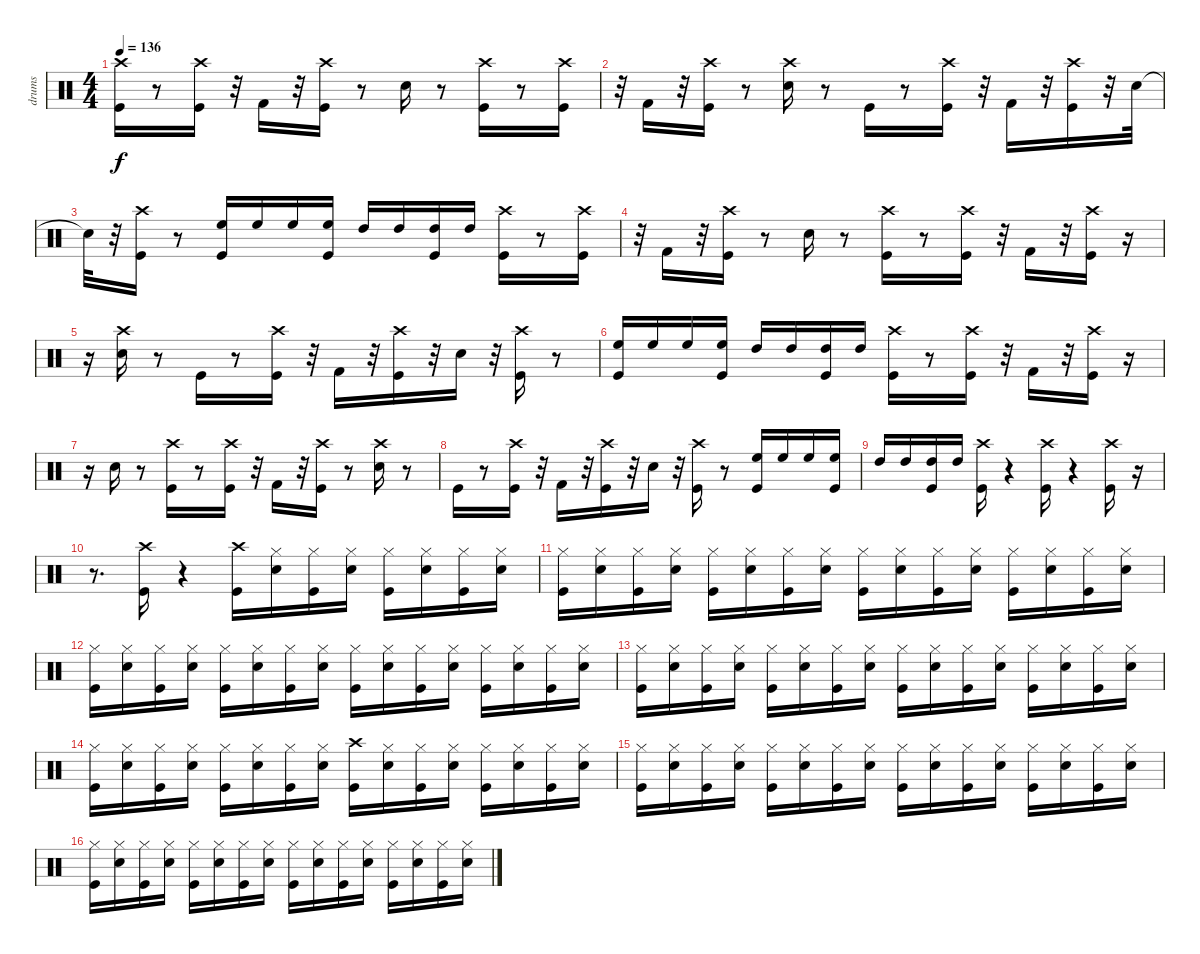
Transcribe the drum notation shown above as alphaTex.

\track ("drums" "drums") {instrument percussion}
\staff {score}
\articulation defaults
\ts (4 4)
\tempo 136
\clef neutral
\ks c
("Crash high (hit)" "Kick (hit)").16{dy f} r.8 ("Kick (hit)" "Crash high (hit)").16 r.32 "Kick (hit) 2".16 r.32 ("Kick (hit)" "Crash high (hit)").16 r.8 "Snare (hit) 2".16 r.8 ("Kick (hit)" "Crash high (hit)").16 r.8 ("Kick (hit)" "Crash high (hit)").16 |
r.32 "Kick (hit) 2".16 r.32 ("Kick (hit)" "Crash high (hit)").16 r.8 ("Crash high (hit)" "Snare (hit) 2").16 r.8 "Kick (hit)".16 r.8 ("Crash high (hit)" "Kick (hit)").16 r.32 "Kick (hit) 2".16 r.32 ("Kick (hit)" "Crash high (hit)").16 r.32 "Snare (hit) 2".32 |
"Snare (hit)"{t}.32 r.32 ("Crash high (hit)" "Kick (hit)").16 r.8 ("Kick (hit)" "High Floor Tom (hit)").16 "High Floor Tom (hit)".16 "High Floor Tom (hit)".16 ("Kick (hit)" "High Floor Tom (hit)").16 "High Tom (hit)".16 "High Tom (hit)".16 ("Kick (hit)" "High Tom (hit)").16 "High Tom (hit)".16 ("Crash high (hit)" "Kick (hit)").16 r.8 ("Kick (hit)" "Crash high (hit)").16 |
r.32 "Kick (hit) 2".16 r.32 ("Kick (hit)" "Crash high (hit)").16 r.8 "Snare (hit) 2".16 r.8 ("Kick (hit)" "Crash high (hit)").16 r.8 ("Kick (hit)" "Crash high (hit)").16 r.32 "Kick (hit) 2".16 r.32 ("Kick (hit)" "Crash high (hit)").16 r.16 |
r.16 ("Crash high (hit)" "Snare (hit) 2").16 r.8 "Kick (hit)".16 r.8 ("Crash high (hit)" "Kick (hit)").16 r.32 "Kick (hit) 2".16 r.32 ("Kick (hit)" "Crash high (hit)").16 r.32 "Snare (hit) 2".16 r.32 ("Crash high (hit)" "Kick (hit)").16 r.8 |
("Kick (hit)" "High Floor Tom (hit)").16 "High Floor Tom (hit)".16 "High Floor Tom (hit)".16 ("Kick (hit)" "High Floor Tom (hit)").16 "High Tom (hit)".16 "High Tom (hit)".16 ("Kick (hit)" "High Tom (hit)").16 "High Tom (hit)".16 ("Crash high (hit)" "Kick (hit)").16 r.8 ("Kick (hit)" "Crash high (hit)").16 r.32 "Kick (hit) 2".16 r.32 ("Kick (hit)" "Crash high (hit)").16 r.16 |
r.16 "Snare (hit) 2".16 r.8 ("Kick (hit)" "Crash high (hit)").16 r.8 ("Kick (hit)" "Crash high (hit)").16 r.32 "Kick (hit) 2".16 r.32 ("Kick (hit)" "Crash high (hit)").16 r.8 ("Crash high (hit)" "Snare (hit) 2").16 r.8 |
"Kick (hit)".16 r.8 ("Crash high (hit)" "Kick (hit)").16 r.32 "Kick (hit) 2".16 r.32 ("Kick (hit)" "Crash high (hit)").16 r.32 "Snare (hit) 2".16 r.32 ("Crash high (hit)" "Kick (hit)").16 r.8 ("Kick (hit)" "High Floor Tom (hit)").16 "High Floor Tom (hit)".16 "High Floor Tom (hit)".16 ("Kick (hit)" "High Floor Tom (hit)").16 |
"High Tom (hit)".16 "High Tom (hit)".16 ("Kick (hit)" "High Tom (hit)").16 "High Tom (hit)".16 ("Crash high (hit)" "Kick (hit)").16 r.4 ("Crash high (hit)" "Kick (hit)").16 r.4 ("Kick (hit)" "Crash high (hit)").16 r.16 |
r.8{d} ("Crash high (hit)" "Kick (hit)").16 r.4 ("Crash high (hit)" "Kick (hit)").16 ("Hi-Hat (closed)" "Snare (hit) 2").16 ("Hi-Hat (closed)" "Kick (hit)").16 ("Hi-Hat (closed)" "Snare (hit) 2").16 ("Hi-Hat (closed)" "Kick (hit)").16 ("Hi-Hat (closed)" "Snare (hit) 2").16 ("Hi-Hat (closed)" "Kick (hit)").16 ("Hi-Hat (closed)" "Snare (hit) 2").16 |
("Hi-Hat (closed)" "Kick (hit)").16 ("Hi-Hat (closed)" "Snare (hit) 2").16 ("Hi-Hat (closed)" "Kick (hit)").16 ("Hi-Hat (closed)" "Snare (hit) 2").16 ("Hi-Hat (closed)" "Kick (hit)").16 ("Hi-Hat (closed)" "Snare (hit) 2").16 ("Hi-Hat (closed)" "Kick (hit)").16 ("Hi-Hat (closed)" "Snare (hit) 2").16 ("Hi-Hat (closed)" "Kick (hit)").16 ("Hi-Hat (closed)" "Snare (hit) 2").16 ("Hi-Hat (closed)" "Kick (hit)").16 ("Hi-Hat (closed)" "Snare (hit) 2").16 ("Hi-Hat (closed)" "Kick (hit)").16 ("Hi-Hat (closed)" "Snare (hit) 2").16 ("Hi-Hat (closed)" "Kick (hit)").16 ("Hi-Hat (closed)" "Snare (hit) 2").16 |
("Hi-Hat (closed)" "Kick (hit)").16 ("Hi-Hat (closed)" "Snare (hit) 2").16 ("Hi-Hat (closed)" "Kick (hit)").16 ("Hi-Hat (closed)" "Snare (hit) 2").16 ("Hi-Hat (closed)" "Kick (hit)").16 ("Hi-Hat (closed)" "Snare (hit) 2").16 ("Hi-Hat (closed)" "Kick (hit)").16 ("Hi-Hat (closed)" "Snare (hit) 2").16 ("Hi-Hat (closed)" "Kick (hit)").16 ("Hi-Hat (closed)" "Snare (hit) 2").16 ("Hi-Hat (closed)" "Kick (hit)").16 ("Hi-Hat (closed)" "Snare (hit) 2").16 ("Hi-Hat (closed)" "Kick (hit)").16 ("Hi-Hat (closed)" "Snare (hit) 2").16 ("Hi-Hat (closed)" "Kick (hit)").16 ("Hi-Hat (closed)" "Snare (hit) 2").16 |
("Hi-Hat (closed)" "Kick (hit)").16 ("Hi-Hat (closed)" "Snare (hit) 2").16 ("Hi-Hat (closed)" "Kick (hit)").16 ("Hi-Hat (closed)" "Snare (hit) 2").16 ("Hi-Hat (closed)" "Kick (hit)").16 ("Hi-Hat (closed)" "Snare (hit) 2").16 ("Hi-Hat (closed)" "Kick (hit)").16 ("Hi-Hat (closed)" "Snare (hit) 2").16 ("Hi-Hat (closed)" "Kick (hit)").16 ("Hi-Hat (closed)" "Snare (hit) 2").16 ("Hi-Hat (closed)" "Kick (hit)").16 ("Hi-Hat (closed)" "Snare (hit) 2").16 ("Hi-Hat (closed)" "Kick (hit)").16 ("Hi-Hat (closed)" "Snare (hit) 2").16 ("Hi-Hat (closed)" "Kick (hit)").16 ("Hi-Hat (closed)" "Snare (hit) 2").16 |
("Hi-Hat (closed)" "Kick (hit)").16 ("Hi-Hat (closed)" "Snare (hit) 2").16 ("Hi-Hat (closed)" "Kick (hit)").16 ("Hi-Hat (closed)" "Snare (hit) 2").16 ("Hi-Hat (closed)" "Kick (hit)").16 ("Hi-Hat (closed)" "Snare (hit) 2").16 ("Hi-Hat (closed)" "Kick (hit)").16 ("Hi-Hat (closed)" "Snare (hit) 2").16 ("Crash high (hit)" "Kick (hit)").16 ("Hi-Hat (closed)" "Snare (hit) 2").16 ("Hi-Hat (closed)" "Kick (hit)").16 ("Hi-Hat (closed)" "Snare (hit) 2").16 ("Hi-Hat (closed)" "Kick (hit)").16 ("Hi-Hat (closed)" "Snare (hit) 2").16 ("Hi-Hat (closed)" "Kick (hit)").16 ("Hi-Hat (closed)" "Snare (hit) 2").16 |
("Hi-Hat (closed)" "Kick (hit)").16 ("Hi-Hat (closed)" "Snare (hit) 2").16 ("Hi-Hat (closed)" "Kick (hit)").16 ("Hi-Hat (closed)" "Snare (hit) 2").16 ("Hi-Hat (closed)" "Kick (hit)").16 ("Hi-Hat (closed)" "Snare (hit) 2").16 ("Hi-Hat (closed)" "Kick (hit)").16 ("Hi-Hat (closed)" "Snare (hit) 2").16 ("Hi-Hat (closed)" "Kick (hit)").16 ("Hi-Hat (closed)" "Snare (hit) 2").16 ("Hi-Hat (closed)" "Kick (hit)").16 ("Hi-Hat (closed)" "Snare (hit) 2").16 ("Hi-Hat (closed)" "Kick (hit)").16 ("Hi-Hat (closed)" "Snare (hit) 2").16 ("Hi-Hat (closed)" "Kick (hit)").16 ("Hi-Hat (closed)" "Snare (hit) 2").16 |
("Hi-Hat (closed)" "Kick (hit)").16 ("Hi-Hat (closed)" "Snare (hit) 2").16 ("Hi-Hat (closed)" "Kick (hit)").16 ("Hi-Hat (closed)" "Snare (hit) 2").16 ("Hi-Hat (closed)" "Kick (hit)").16 ("Hi-Hat (closed)" "Snare (hit) 2").16 ("Hi-Hat (closed)" "Kick (hit)").16 ("Hi-Hat (closed)" "Snare (hit) 2").16 ("Hi-Hat (closed)" "Kick (hit)").16 ("Hi-Hat (closed)" "Snare (hit) 2").16 ("Hi-Hat (closed)" "Kick (hit)").16 ("Hi-Hat (closed)" "Snare (hit) 2").16 ("Hi-Hat (closed)" "Kick (hit)").16 ("Hi-Hat (closed)" "Snare (hit) 2").16 ("Hi-Hat (closed)" "Kick (hit)").16 ("Hi-Hat (closed)" "Snare (hit) 2").16
